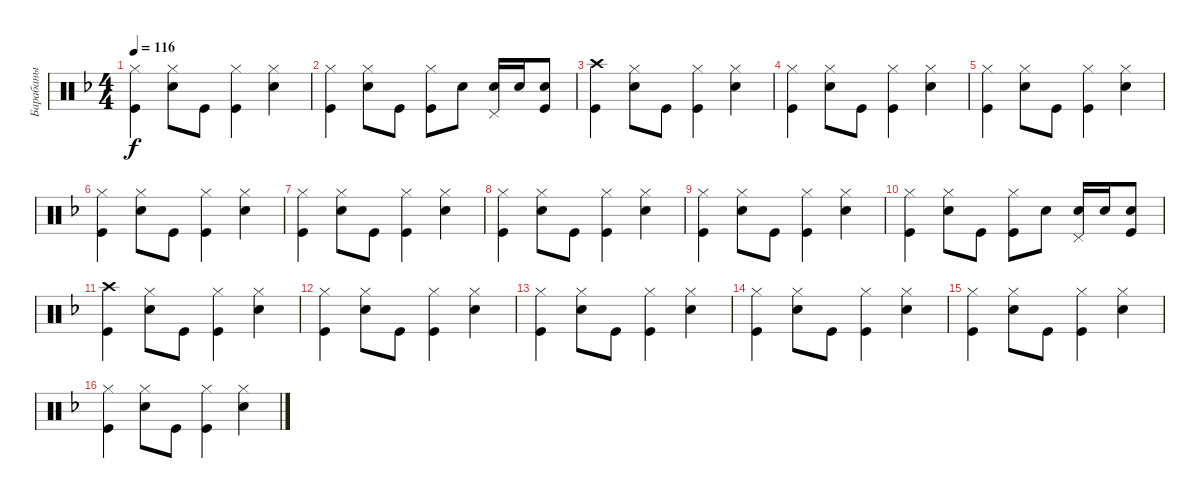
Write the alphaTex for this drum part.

\track ("Барабаны" "Барабаны") {instrument percussion}
\staff {score}
\articulation defaults
\ts (4 4)
\tempo 116
\clef neutral
\ks dminor
("Hi-Hat (closed)" "Kick (hit)").4{dy f} ("Hi-Hat (closed)" "Snare (hit) 2").8 "Kick (hit)".8 ("Hi-Hat (closed)" "Kick (hit)").4 ("Hi-Hat (closed)" "Snare (hit) 2").4 |
("Hi-Hat (closed)" "Kick (hit)").4 ("Hi-Hat (closed)" "Snare (hit) 2").8 "Kick (hit)".8 ("Hi-Hat (closed)" "Kick (hit)").8 "Snare (hit) 2".8 ("Snare (hit) 2" "Pedal Hi-Hat (hit)").16 "Snare (hit) 2".16 ("Snare (hit) 2" "Kick (hit)").8 |
("Crash high (hit)" "Kick (hit)").4 ("Hi-Hat (closed)" "Snare (hit) 2").8 "Kick (hit)".8 ("Hi-Hat (closed)" "Kick (hit)").4 ("Hi-Hat (closed)" "Snare (hit) 2").4 |
("Hi-Hat (closed)" "Kick (hit)").4 ("Hi-Hat (closed)" "Snare (hit) 2").8 "Kick (hit)".8 ("Hi-Hat (closed)" "Kick (hit)").4 ("Hi-Hat (closed)" "Snare (hit) 2").4 |
("Hi-Hat (closed)" "Kick (hit)").4 ("Hi-Hat (closed)" "Snare (hit) 2").8 "Kick (hit)".8 ("Hi-Hat (closed)" "Kick (hit)").4 ("Hi-Hat (closed)" "Snare (hit) 2").4 |
("Hi-Hat (closed)" "Kick (hit)").4 ("Hi-Hat (closed)" "Snare (hit) 2").8 "Kick (hit)".8 ("Hi-Hat (closed)" "Kick (hit)").4 ("Hi-Hat (closed)" "Snare (hit) 2").4 |
("Hi-Hat (closed)" "Kick (hit)").4 ("Hi-Hat (closed)" "Snare (hit) 2").8 "Kick (hit)".8 ("Hi-Hat (closed)" "Kick (hit)").4 ("Hi-Hat (closed)" "Snare (hit) 2").4 |
("Hi-Hat (closed)" "Kick (hit)").4 ("Hi-Hat (closed)" "Snare (hit) 2").8 "Kick (hit)".8 ("Hi-Hat (closed)" "Kick (hit)").4 ("Hi-Hat (closed)" "Snare (hit) 2").4 |
("Hi-Hat (closed)" "Kick (hit)").4 ("Hi-Hat (closed)" "Snare (hit) 2").8 "Kick (hit)".8 ("Hi-Hat (closed)" "Kick (hit)").4 ("Hi-Hat (closed)" "Snare (hit) 2").4 |
("Hi-Hat (closed)" "Kick (hit)").4 ("Hi-Hat (closed)" "Snare (hit) 2").8 "Kick (hit)".8 ("Hi-Hat (closed)" "Kick (hit)").8 "Snare (hit) 2".8 ("Snare (hit) 2" "Pedal Hi-Hat (hit)").16 "Snare (hit) 2".16 ("Snare (hit) 2" "Kick (hit)").8 |
("Crash high (hit)" "Kick (hit)").4 ("Hi-Hat (closed)" "Snare (hit) 2").8 "Kick (hit)".8 ("Hi-Hat (closed)" "Kick (hit)").4 ("Hi-Hat (closed)" "Snare (hit) 2").4 |
("Hi-Hat (closed)" "Kick (hit)").4 ("Hi-Hat (closed)" "Snare (hit) 2").8 "Kick (hit)".8 ("Hi-Hat (closed)" "Kick (hit)").4 ("Hi-Hat (closed)" "Snare (hit) 2").4 |
("Hi-Hat (closed)" "Kick (hit)").4 ("Hi-Hat (closed)" "Snare (hit) 2").8 "Kick (hit)".8 ("Hi-Hat (closed)" "Kick (hit)").4 ("Hi-Hat (closed)" "Snare (hit) 2").4 |
("Hi-Hat (closed)" "Kick (hit)").4 ("Hi-Hat (closed)" "Snare (hit) 2").8 "Kick (hit)".8 ("Hi-Hat (closed)" "Kick (hit)").4 ("Hi-Hat (closed)" "Snare (hit) 2").4 |
("Hi-Hat (closed)" "Kick (hit)").4 ("Hi-Hat (closed)" "Snare (hit) 2").8 "Kick (hit)".8 ("Hi-Hat (closed)" "Kick (hit)").4 ("Hi-Hat (closed)" "Snare (hit) 2").4 |
("Hi-Hat (closed)" "Kick (hit)").4 ("Hi-Hat (closed)" "Snare (hit) 2").8 "Kick (hit)".8 ("Hi-Hat (closed)" "Kick (hit)").4 ("Hi-Hat (closed)" "Snare (hit) 2").4
